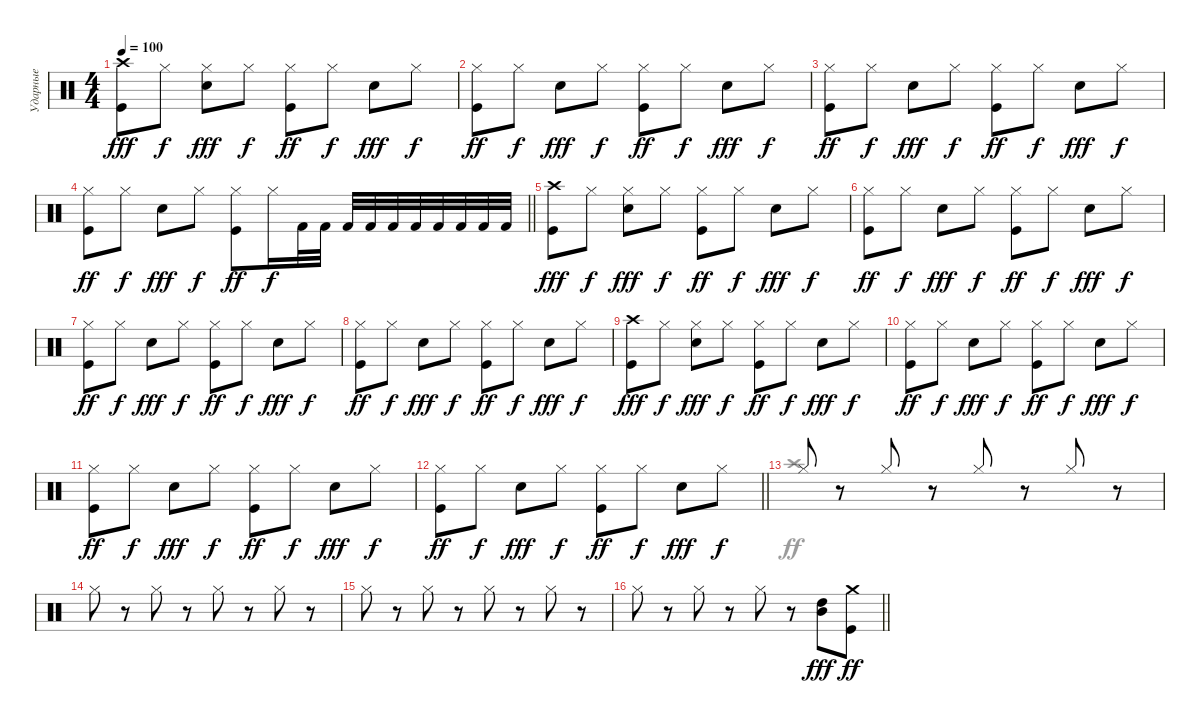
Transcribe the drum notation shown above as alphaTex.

\track ("Ударные" "Ударные") {instrument percussion}
\staff {score}
\articulation defaults
\voice
\ts (4 4)
\tempo 100
\clef neutral
\ks c
("Kick (hit)" "Crash high (hit)").8{dy fff} "Hi-Hat (closed)".8{dy f} ("Electric Snare (hit)" "Hi-Hat (closed)").8{dy fff} "Hi-Hat (closed)".8{dy f} ("Kick (hit)" "Hi-Hat (closed)").8{dy ff} "Hi-Hat (closed)".8{dy f} "Electric Snare (hit)".8{dy fff} "Hi-Hat (closed)".8{dy f} |
("Kick (hit)" "Hi-Hat (closed)").8{dy ff} "Hi-Hat (closed)".8{dy f} "Electric Snare (hit)".8{dy fff} "Hi-Hat (closed)".8{dy f} ("Kick (hit)" "Hi-Hat (closed)").8{dy ff} "Hi-Hat (closed)".8{dy f} "Electric Snare (hit)".8{dy fff} "Hi-Hat (closed)".8{dy f} |
("Kick (hit)" "Hi-Hat (closed)").8{dy ff} "Hi-Hat (closed)".8{dy f} "Electric Snare (hit)".8{dy fff} "Hi-Hat (closed)".8{dy f} ("Kick (hit)" "Hi-Hat (closed)").8{dy ff} "Hi-Hat (closed)".8{dy f} "Electric Snare (hit)".8{dy fff} "Hi-Hat (closed)".8{dy f} |
\barLineRight lightlight
("Kick (hit)" "Hi-Hat (closed)").8{dy ff} "Hi-Hat (closed)".8{dy f} "Electric Snare (hit)".8{dy fff} "Hi-Hat (closed)".8{dy f} ("Kick (hit)" "Hi-Hat (closed)").8{dy ff} "Hi-Hat (closed)".16{dy f} "Kick (hit) 2".32 "Kick (hit) 2".32 "Kick (hit) 2".32 "Kick (hit) 2".32 "Kick (hit) 2".32 "Kick (hit) 2".32 "Kick (hit) 2".32 "Kick (hit) 2".32 "Kick (hit) 2".32 "Kick (hit) 2".32 |
("Kick (hit)" "Crash high (hit)").8{dy fff} "Hi-Hat (closed)".8{dy f} ("Electric Snare (hit)" "Hi-Hat (closed)").8{dy fff} "Hi-Hat (closed)".8{dy f} ("Kick (hit)" "Hi-Hat (closed)").8{dy ff} "Hi-Hat (closed)".8{dy f} "Electric Snare (hit)".8{dy fff} "Hi-Hat (closed)".8{dy f} |
("Kick (hit)" "Hi-Hat (closed)").8{dy ff} "Hi-Hat (closed)".8{dy f} "Electric Snare (hit)".8{dy fff} "Hi-Hat (closed)".8{dy f} ("Kick (hit)" "Hi-Hat (closed)").8{dy ff} "Hi-Hat (closed)".8{dy f} "Electric Snare (hit)".8{dy fff} "Hi-Hat (closed)".8{dy f} |
("Kick (hit)" "Hi-Hat (closed)").8{dy ff} "Hi-Hat (closed)".8{dy f} "Electric Snare (hit)".8{dy fff} "Hi-Hat (closed)".8{dy f} ("Kick (hit)" "Hi-Hat (closed)").8{dy ff} "Hi-Hat (closed)".8{dy f} "Electric Snare (hit)".8{dy fff} "Hi-Hat (closed)".8{dy f} |
("Kick (hit)" "Hi-Hat (closed)").8{dy ff} "Hi-Hat (closed)".8{dy f} "Electric Snare (hit)".8{dy fff} "Hi-Hat (closed)".8{dy f} ("Kick (hit)" "Hi-Hat (closed)").8{dy ff} "Hi-Hat (closed)".8{dy f} "Electric Snare (hit)".8{dy fff} "Hi-Hat (closed)".8{dy f} |
("Kick (hit)" "Crash high (hit)").8{dy fff} "Hi-Hat (closed)".8{dy f} ("Electric Snare (hit)" "Hi-Hat (closed)").8{dy fff} "Hi-Hat (closed)".8{dy f} ("Kick (hit)" "Hi-Hat (closed)").8{dy ff} "Hi-Hat (closed)".8{dy f} "Electric Snare (hit)".8{dy fff} "Hi-Hat (closed)".8{dy f} |
("Kick (hit)" "Hi-Hat (closed)").8{dy ff} "Hi-Hat (closed)".8{dy f} "Electric Snare (hit)".8{dy fff} "Hi-Hat (closed)".8{dy f} ("Kick (hit)" "Hi-Hat (closed)").8{dy ff} "Hi-Hat (closed)".8{dy f} "Electric Snare (hit)".8{dy fff} "Hi-Hat (closed)".8{dy f} |
("Kick (hit)" "Hi-Hat (closed)").8{dy ff} "Hi-Hat (closed)".8{dy f} "Electric Snare (hit)".8{dy fff} "Hi-Hat (closed)".8{dy f} ("Kick (hit)" "Hi-Hat (closed)").8{dy ff} "Hi-Hat (closed)".8{dy f} "Electric Snare (hit)".8{dy fff} "Hi-Hat (closed)".8{dy f} |
\barLineRight lightlight
("Kick (hit)" "Hi-Hat (closed)").8{dy ff} "Hi-Hat (closed)".8{dy f} "Electric Snare (hit)".8{dy fff} "Hi-Hat (closed)".8{dy f} ("Kick (hit)" "Hi-Hat (closed)").8{dy ff} "Hi-Hat (closed)".8{dy f} "Electric Snare (hit)".8{dy fff} "Hi-Hat (closed)".8{dy f} |
"Hi-Hat (closed)".8 r.8 "Hi-Hat (closed)".8 r.8 "Hi-Hat (closed)".8 r.8 "Hi-Hat (closed)".8 r.8 |
"Hi-Hat (closed)".8 r.8 "Hi-Hat (closed)".8 r.8 "Hi-Hat (closed)".8 r.8 "Hi-Hat (closed)".8 r.8 |
"Hi-Hat (closed)".8 r.8 "Hi-Hat (closed)".8 r.8 "Hi-Hat (closed)".8 r.8 "Hi-Hat (closed)".8 r.8 |
\barLineRight lightlight "Hi-Hat (closed)".8
r.8 "Hi-Hat (closed)".8 r.8 "Hi-Hat (closed)".8 r.8 ("Mid Tom (hit)" "High Tom (hit)").8{dy fff} ("Crash medium (hit)" "Kick (hit)").8{dy ff}
\voice
\clef neutral
\ottava regular
\simile none
\ks c
|
|
|
\barLineRight lightlight
|
|
|
|
|
|
|
|
\barLineRight lightlight
|
"Crash high (hit)".1 |
|
|
\barLineRight lightlight
